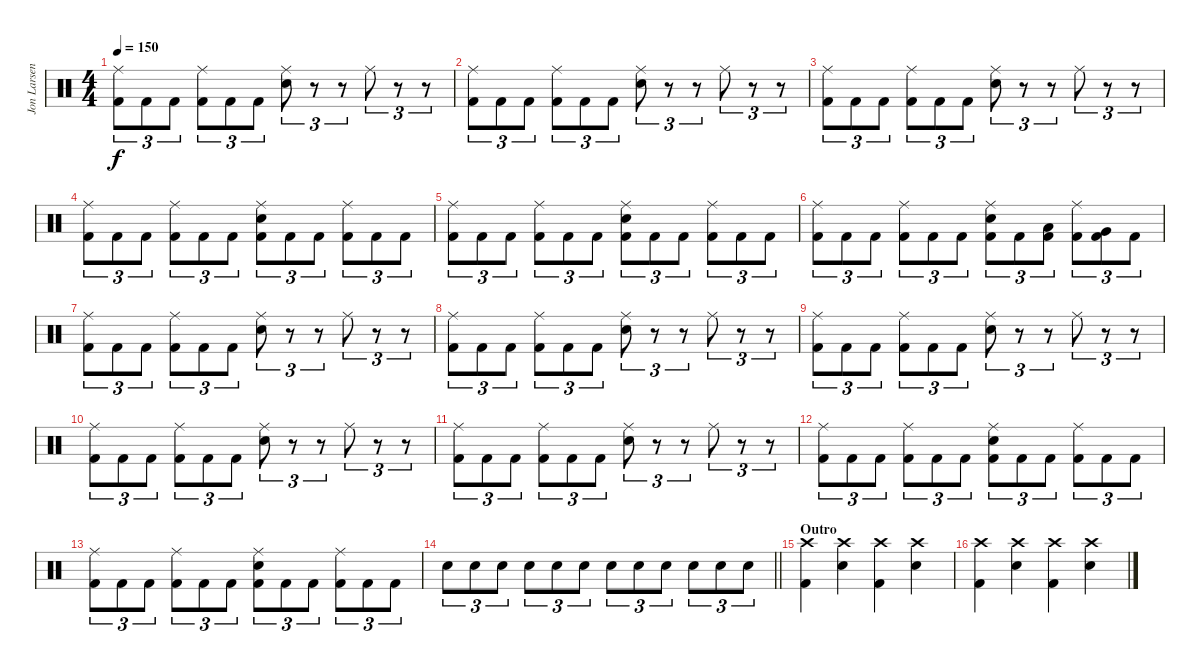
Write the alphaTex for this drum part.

\track ("Jon Larsen" "Jon Larsen") {instrument percussion}
\staff {score}
\articulation defaults
\ts (4 4)
\tempo 150
\clef neutral
\ks c
("Ride (middle)" "Kick (hit) 2").8{tu (3 2) dy f} "Kick (hit) 2".8{tu (3 2)} "Kick (hit) 2".8{tu (3 2)} ("Ride (middle)" "Kick (hit) 2").8{tu (3 2)} "Kick (hit) 2".8{tu (3 2)} "Kick (hit) 2".8{tu (3 2)} ("Snare (hit) 2" "Ride (middle)").8{tu (3 2)} r.8{tu (3 2)} r.8{tu (3 2)} "Ride (middle)".8{tu (3 2)} r.8{tu (3 2)} r.8{tu (3 2)} |
("Ride (middle)" "Kick (hit) 2").8{tu (3 2)} "Kick (hit) 2".8{tu (3 2)} "Kick (hit) 2".8{tu (3 2)} ("Ride (middle)" "Kick (hit) 2").8{tu (3 2)} "Kick (hit) 2".8{tu (3 2)} "Kick (hit) 2".8{tu (3 2)} ("Snare (hit) 2" "Ride (middle)").8{tu (3 2)} r.8{tu (3 2)} r.8{tu (3 2)} "Ride (middle)".8{tu (3 2)} r.8{tu (3 2)} r.8{tu (3 2)} |
("Ride (middle)" "Kick (hit) 2").8{tu (3 2)} "Kick (hit) 2".8{tu (3 2)} "Kick (hit) 2".8{tu (3 2)} ("Ride (middle)" "Kick (hit) 2").8{tu (3 2)} "Kick (hit) 2".8{tu (3 2)} "Kick (hit) 2".8{tu (3 2)} ("Snare (hit) 2" "Ride (middle)").8{tu (3 2)} r.8{tu (3 2)} r.8{tu (3 2)} "Ride (middle)".8{tu (3 2)} r.8{tu (3 2)} r.8{tu (3 2)} |
("Ride (middle)" "Kick (hit) 2").8{tu (3 2)} "Kick (hit) 2".8{tu (3 2)} "Kick (hit) 2".8{tu (3 2)} ("Ride (middle)" "Kick (hit) 2").8{tu (3 2)} "Kick (hit) 2".8{tu (3 2)} "Kick (hit) 2".8{tu (3 2)} ("Snare (hit) 2" "Ride (middle)" "Kick (hit) 2").8{tu (3 2)} "Kick (hit) 2".8{tu (3 2)} "Kick (hit) 2".8{tu (3 2)} ("Ride (middle)" "Kick (hit) 2").8{tu (3 2)} "Kick (hit) 2".8{tu (3 2)} "Kick (hit) 2".8{tu (3 2)} |
("Ride (middle)" "Kick (hit) 2").8{tu (3 2)} "Kick (hit) 2".8{tu (3 2)} "Kick (hit) 2".8{tu (3 2)} ("Ride (middle)" "Kick (hit) 2").8{tu (3 2)} "Kick (hit) 2".8{tu (3 2)} "Kick (hit) 2".8{tu (3 2)} ("Snare (hit) 2" "Ride (middle)" "Kick (hit) 2").8{tu (3 2)} "Kick (hit) 2".8{tu (3 2)} "Kick (hit) 2".8{tu (3 2)} ("Ride (middle)" "Kick (hit) 2").8{tu (3 2)} "Kick (hit) 2".8{tu (3 2)} "Kick (hit) 2".8{tu (3 2)} |
("Ride (middle)" "Kick (hit) 2").8{tu (3 2)} "Kick (hit) 2".8{tu (3 2)} "Kick (hit) 2".8{tu (3 2)} ("Ride (middle)" "Kick (hit) 2").8{tu (3 2)} "Kick (hit) 2".8{tu (3 2)} "Kick (hit) 2".8{tu (3 2)} ("Snare (hit) 2" "Ride (middle)" "Kick (hit) 2").8{tu (3 2)} "Kick (hit) 2".8{tu (3 2)} ("Low Tom (hit)" "Kick (hit) 2").8{tu (3 2)} ("Ride (middle)" "Kick (hit) 2").8{tu (3 2)} ("Very Low Tom (hit)" "Kick (hit) 2").8{tu (3 2)} "Kick (hit) 2".8{tu (3 2)} |
("Ride (middle)" "Kick (hit) 2").8{tu (3 2)} "Kick (hit) 2".8{tu (3 2)} "Kick (hit) 2".8{tu (3 2)} ("Ride (middle)" "Kick (hit) 2").8{tu (3 2)} "Kick (hit) 2".8{tu (3 2)} "Kick (hit) 2".8{tu (3 2)} ("Snare (hit) 2" "Ride (middle)").8{tu (3 2)} r.8{tu (3 2)} r.8{tu (3 2)} "Ride (middle)".8{tu (3 2)} r.8{tu (3 2)} r.8{tu (3 2)} |
("Ride (middle)" "Kick (hit) 2").8{tu (3 2)} "Kick (hit) 2".8{tu (3 2)} "Kick (hit) 2".8{tu (3 2)} ("Ride (middle)" "Kick (hit) 2").8{tu (3 2)} "Kick (hit) 2".8{tu (3 2)} "Kick (hit) 2".8{tu (3 2)} ("Snare (hit) 2" "Ride (middle)").8{tu (3 2)} r.8{tu (3 2)} r.8{tu (3 2)} "Ride (middle)".8{tu (3 2)} r.8{tu (3 2)} r.8{tu (3 2)} |
("Ride (middle)" "Kick (hit) 2").8{tu (3 2)} "Kick (hit) 2".8{tu (3 2)} "Kick (hit) 2".8{tu (3 2)} ("Ride (middle)" "Kick (hit) 2").8{tu (3 2)} "Kick (hit) 2".8{tu (3 2)} "Kick (hit) 2".8{tu (3 2)} ("Snare (hit) 2" "Ride (middle)").8{tu (3 2)} r.8{tu (3 2)} r.8{tu (3 2)} "Ride (middle)".8{tu (3 2)} r.8{tu (3 2)} r.8{tu (3 2)} |
("Ride (middle)" "Kick (hit) 2").8{tu (3 2)} "Kick (hit) 2".8{tu (3 2)} "Kick (hit) 2".8{tu (3 2)} ("Ride (middle)" "Kick (hit) 2").8{tu (3 2)} "Kick (hit) 2".8{tu (3 2)} "Kick (hit) 2".8{tu (3 2)} ("Snare (hit) 2" "Ride (middle)").8{tu (3 2)} r.8{tu (3 2)} r.8{tu (3 2)} "Ride (middle)".8{tu (3 2)} r.8{tu (3 2)} r.8{tu (3 2)} |
("Ride (middle)" "Kick (hit) 2").8{tu (3 2)} "Kick (hit) 2".8{tu (3 2)} "Kick (hit) 2".8{tu (3 2)} ("Ride (middle)" "Kick (hit) 2").8{tu (3 2)} "Kick (hit) 2".8{tu (3 2)} "Kick (hit) 2".8{tu (3 2)} ("Snare (hit) 2" "Ride (middle)").8{tu (3 2)} r.8{tu (3 2)} r.8{tu (3 2)} "Ride (middle)".8{tu (3 2)} r.8{tu (3 2)} r.8{tu (3 2)} |
("Ride (middle)" "Kick (hit) 2").8{tu (3 2)} "Kick (hit) 2".8{tu (3 2)} "Kick (hit) 2".8{tu (3 2)} ("Ride (middle)" "Kick (hit) 2").8{tu (3 2)} "Kick (hit) 2".8{tu (3 2)} "Kick (hit) 2".8{tu (3 2)} ("Snare (hit) 2" "Ride (middle)" "Kick (hit) 2").8{tu (3 2)} "Kick (hit) 2".8{tu (3 2)} "Kick (hit) 2".8{tu (3 2)} ("Ride (middle)" "Kick (hit) 2").8{tu (3 2)} "Kick (hit) 2".8{tu (3 2)} "Kick (hit) 2".8{tu (3 2)} |
("Ride (middle)" "Kick (hit) 2").8{tu (3 2)} "Kick (hit) 2".8{tu (3 2)} "Kick (hit) 2".8{tu (3 2)} ("Ride (middle)" "Kick (hit) 2").8{tu (3 2)} "Kick (hit) 2".8{tu (3 2)} "Kick (hit) 2".8{tu (3 2)} ("Snare (hit) 2" "Ride (middle)" "Kick (hit) 2").8{tu (3 2)} "Kick (hit) 2".8{tu (3 2)} "Kick (hit) 2".8{tu (3 2)} ("Ride (middle)" "Kick (hit) 2").8{tu (3 2)} "Kick (hit) 2".8{tu (3 2)} "Kick (hit) 2".8{tu (3 2)} |
\barLineRight lightlight "Snare (hit) 2".8{tu (3 2)} "Snare (hit) 2".8{tu (3 2)} "Snare (hit) 2".8{tu (3 2)} "Snare (hit) 2".8{tu (3 2)} "Snare (hit) 2".8{tu (3 2)} "Snare (hit) 2".8{tu (3 2)} "Snare (hit) 2".8{tu (3 2)} "Snare (hit) 2".8{tu (3 2)} "Snare (hit) 2".8{tu (3 2)} "Snare (hit) 2".8{tu (3 2)} "Snare (hit) 2".8{tu (3 2)} "Snare (hit) 2".8{tu (3 2)}
|
\section ("" "Outro")
("Kick (hit) 2" "Crash high (hit)").4 ("Snare (hit) 2" "Crash high (hit)").4 ("Kick (hit) 2" "Crash high (hit)").4 ("Snare (hit) 2" "Crash high (hit)").4 |
("Kick (hit) 2" "Crash high (hit)").4 ("Snare (hit) 2" "Crash high (hit)").4 ("Kick (hit) 2" "Crash high (hit)").4 ("Snare (hit) 2" "Crash high (hit)").4
